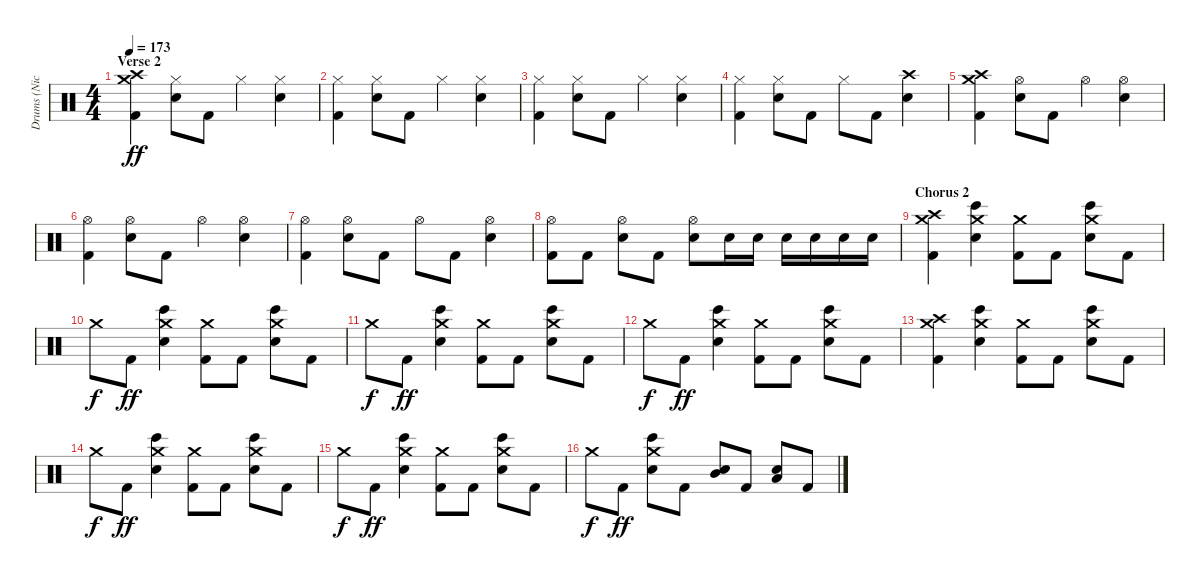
\track ("Drums (Nick Oshiro)" "Drums (Nic") {instrument percussion}
\staff {score}
\articulation defaults
\ts (4 4)
\section ("" "Verse 2")
\tempo 173
\clef neutral
\ks c
("Crash medium (hit)" "Crash high (hit)" "Kick (hit) 2").4{dy ff} ("Hi-Hat (closed)" "Snare (hit) 2").8 "Kick (hit) 2".8 "Hi-Hat (closed)".4 ("Hi-Hat (closed)" "Snare (hit) 2").4 |
("Hi-Hat (closed)" "Kick (hit) 2").4 ("Hi-Hat (closed)" "Snare (hit) 2").8 "Kick (hit) 2".8 "Hi-Hat (closed)".4 ("Hi-Hat (closed)" "Snare (hit) 2").4 |
("Hi-Hat (closed)" "Kick (hit) 2").4 ("Hi-Hat (closed)" "Snare (hit) 2").8 "Kick (hit) 2".8 "Hi-Hat (closed)".4 ("Hi-Hat (closed)" "Snare (hit) 2").4 |
("Hi-Hat (closed)" "Kick (hit) 2").4 ("Hi-Hat (closed)" "Snare (hit) 2").8 "Kick (hit) 2".8 "Hi-Hat (closed)".8 "Kick (hit) 2".8 ("Crash high (hit)" "Snare (hit) 2").4 |
("Crash medium (hit)" "Crash high (hit)" "Kick (hit) 2").4 ("Hi-Hat (open)" "Snare (hit) 2").8 "Kick (hit) 2".8 "Hi-Hat (open)".4 ("Hi-Hat (open)" "Snare (hit) 2").4 |
("Hi-Hat (open)" "Kick (hit) 2").4 ("Hi-Hat (open)" "Snare (hit) 2").8 "Kick (hit) 2".8 "Hi-Hat (open)".4 ("Hi-Hat (open)" "Snare (hit) 2").4 |
("Hi-Hat (open)" "Kick (hit) 2").4 ("Hi-Hat (open)" "Snare (hit) 2").8 "Kick (hit) 2".8 "Hi-Hat (open)".8 "Kick (hit) 2".8 ("Hi-Hat (open)" "Snare (hit) 2").4 |
("Hi-Hat (open)" "Kick (hit) 2").8 "Kick (hit) 2".8 ("Hi-Hat (open)" "Snare (hit) 2").8 "Kick (hit) 2".8 ("Hi-Hat (open)" "Snare (hit) 2").8 "Snare (hit) 2".16 "Snare (hit) 2".16 "Snare (hit) 2".16 "Snare (hit) 2".16 "Snare (hit) 2".16 "Snare (hit) 2".16 |
\section ("" "Chorus 2")
("Crash medium (hit)" "Crash high (hit)" "Kick (hit) 2").4 ("Crash medium (hit)" "Bongo High (hit)" "Snare (hit) 2").4 ("Crash medium (hit)" "Kick (hit) 2").8 "Kick (hit) 2".8 ("Crash medium (hit)" "Bongo High (hit)" "Snare (hit) 2").8 "Kick (hit) 2".8 |
"Crash medium (hit)".8{dy f} "Kick (hit) 2".8{dy ff} ("Crash medium (hit)" "Bongo High (hit)" "Snare (hit) 2").4 ("Crash medium (hit)" "Kick (hit) 2").8 "Kick (hit) 2".8 ("Crash medium (hit)" "Bongo High (hit)" "Snare (hit) 2").8 "Kick (hit) 2".8 |
"Crash medium (hit)".8{dy f} "Kick (hit) 2".8{dy ff} ("Crash medium (hit)" "Bongo High (hit)" "Snare (hit) 2").4 ("Crash medium (hit)" "Kick (hit) 2").8 "Kick (hit) 2".8 ("Crash medium (hit)" "Bongo High (hit)" "Snare (hit) 2").8 "Kick (hit) 2".8 |
"Crash medium (hit)".8{dy f} "Kick (hit) 2".8{dy ff} ("Crash medium (hit)" "Bongo High (hit)" "Snare (hit) 2").4 ("Crash medium (hit)" "Kick (hit) 2").8 "Kick (hit) 2".8 ("Crash medium (hit)" "Bongo High (hit)" "Snare (hit) 2").8 "Kick (hit) 2".8 |
("Crash medium (hit)" "Crash high (hit)" "Kick (hit) 2").4 ("Crash medium (hit)" "Bongo High (hit)" "Snare (hit) 2").4 ("Crash medium (hit)" "Kick (hit) 2").8 "Kick (hit) 2".8 ("Crash medium (hit)" "Bongo High (hit)" "Snare (hit) 2").8 "Kick (hit) 2".8 |
"Crash medium (hit)".8{dy f} "Kick (hit) 2".8{dy ff} ("Crash medium (hit)" "Bongo High (hit)" "Snare (hit) 2").4 ("Crash medium (hit)" "Kick (hit) 2").8 "Kick (hit) 2".8 ("Crash medium (hit)" "Bongo High (hit)" "Snare (hit) 2").8 "Kick (hit) 2".8 |
"Crash medium (hit)".8{dy f} "Kick (hit) 2".8{dy ff} ("Crash medium (hit)" "Bongo High (hit)" "Snare (hit) 2").4 ("Crash medium (hit)" "Kick (hit) 2").8 "Kick (hit) 2".8 ("Crash medium (hit)" "Bongo High (hit)" "Snare (hit) 2").8 "Kick (hit) 2".8 |
"Crash medium (hit)".8{dy f} "Kick (hit) 2".8{dy ff} ("Crash medium (hit)" "Bongo High (hit)" "Snare (hit) 2").8 "Kick (hit) 2".8 ("Mid Tom (hit)" "Snare (hit) 2").8 "Kick (hit) 2".8 ("Low Tom (hit)" "Snare (hit) 2").8 "Kick (hit) 2".8
